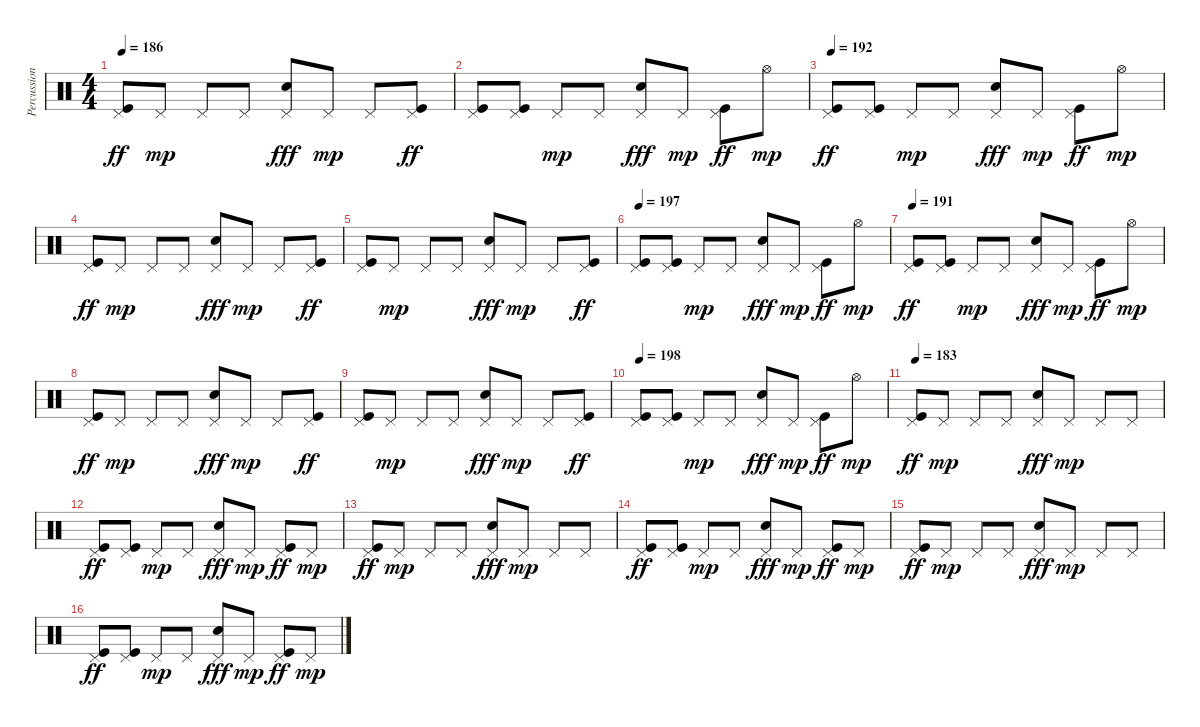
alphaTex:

\track ("Percussion" "Percussion") {instrument percussion}
\staff {score}
\articulation defaults
\ts (4 4)
\tempo 186
\clef neutral
\ks c
("Pedal Hi-Hat (hit)" "Kick (hit)").8{dy ff} "Pedal Hi-Hat (hit)".8{dy mp} "Pedal Hi-Hat (hit)".8 "Pedal Hi-Hat (hit)".8 ("Pedal Hi-Hat (hit)" "Snare (hit) 2").8{dy fff} "Pedal Hi-Hat (hit)".8{dy mp} "Pedal Hi-Hat (hit)".8 ("Pedal Hi-Hat (hit)" "Kick (hit)").8{dy ff} |
("Pedal Hi-Hat (hit)" "Kick (hit)").8 ("Pedal Hi-Hat (hit)" "Kick (hit)").8 "Pedal Hi-Hat (hit)".8{dy mp} "Pedal Hi-Hat (hit)".8 ("Pedal Hi-Hat (hit)" "Snare (hit) 2").8{dy fff} "Pedal Hi-Hat (hit)".8{dy mp} ("Pedal Hi-Hat (hit)" "Kick (hit)").8{dy ff} "Hi-Hat (open)".8{dy mp} |
\tempo 192
("Pedal Hi-Hat (hit)" "Kick (hit)").8{dy ff} ("Pedal Hi-Hat (hit)" "Kick (hit)").8 "Pedal Hi-Hat (hit)".8{dy mp} "Pedal Hi-Hat (hit)".8 ("Pedal Hi-Hat (hit)" "Snare (hit) 2").8{dy fff} "Pedal Hi-Hat (hit)".8{dy mp} ("Pedal Hi-Hat (hit)" "Kick (hit)").8{dy ff} "Hi-Hat (open)".8{dy mp} |
("Pedal Hi-Hat (hit)" "Kick (hit)").8{dy ff} "Pedal Hi-Hat (hit)".8{dy mp} "Pedal Hi-Hat (hit)".8 "Pedal Hi-Hat (hit)".8 ("Pedal Hi-Hat (hit)" "Snare (hit) 2").8{dy fff} "Pedal Hi-Hat (hit)".8{dy mp} "Pedal Hi-Hat (hit)".8 ("Pedal Hi-Hat (hit)" "Kick (hit)").8{dy ff} |
("Pedal Hi-Hat (hit)" "Kick (hit)").8 "Pedal Hi-Hat (hit)".8{dy mp} "Pedal Hi-Hat (hit)".8 "Pedal Hi-Hat (hit)".8 ("Pedal Hi-Hat (hit)" "Snare (hit) 2").8{dy fff} "Pedal Hi-Hat (hit)".8{dy mp} "Pedal Hi-Hat (hit)".8 ("Pedal Hi-Hat (hit)" "Kick (hit)").8{dy ff} |
\tempo 197
("Pedal Hi-Hat (hit)" "Kick (hit)").8 ("Pedal Hi-Hat (hit)" "Kick (hit)").8 "Pedal Hi-Hat (hit)".8{dy mp} "Pedal Hi-Hat (hit)".8 ("Pedal Hi-Hat (hit)" "Snare (hit) 2").8{dy fff} "Pedal Hi-Hat (hit)".8{dy mp} ("Pedal Hi-Hat (hit)" "Kick (hit)").8{dy ff} "Hi-Hat (open)".8{dy mp} |
\tempo 191
("Pedal Hi-Hat (hit)" "Kick (hit)").8{dy ff} ("Pedal Hi-Hat (hit)" "Kick (hit)").8 "Pedal Hi-Hat (hit)".8{dy mp} "Pedal Hi-Hat (hit)".8 ("Pedal Hi-Hat (hit)" "Snare (hit) 2").8{dy fff} "Pedal Hi-Hat (hit)".8{dy mp} ("Pedal Hi-Hat (hit)" "Kick (hit)").8{dy ff} "Hi-Hat (open)".8{dy mp} |
("Pedal Hi-Hat (hit)" "Kick (hit)").8{dy ff} "Pedal Hi-Hat (hit)".8{dy mp} "Pedal Hi-Hat (hit)".8 "Pedal Hi-Hat (hit)".8 ("Pedal Hi-Hat (hit)" "Snare (hit) 2").8{dy fff} "Pedal Hi-Hat (hit)".8{dy mp} "Pedal Hi-Hat (hit)".8 ("Pedal Hi-Hat (hit)" "Kick (hit)").8{dy ff} |
("Pedal Hi-Hat (hit)" "Kick (hit)").8 "Pedal Hi-Hat (hit)".8{dy mp} "Pedal Hi-Hat (hit)".8 "Pedal Hi-Hat (hit)".8 ("Pedal Hi-Hat (hit)" "Snare (hit) 2").8{dy fff} "Pedal Hi-Hat (hit)".8{dy mp} "Pedal Hi-Hat (hit)".8 ("Pedal Hi-Hat (hit)" "Kick (hit)").8{dy ff} |
\tempo 198
("Pedal Hi-Hat (hit)" "Kick (hit)").8 ("Pedal Hi-Hat (hit)" "Kick (hit)").8 "Pedal Hi-Hat (hit)".8{dy mp} "Pedal Hi-Hat (hit)".8 ("Pedal Hi-Hat (hit)" "Snare (hit) 2").8{dy fff} "Pedal Hi-Hat (hit)".8{dy mp} ("Pedal Hi-Hat (hit)" "Kick (hit)").8{dy ff} "Hi-Hat (open)".8{dy mp} |
\tempo 183
("Pedal Hi-Hat (hit)" "Kick (hit)").8{dy ff} "Pedal Hi-Hat (hit)".8{dy mp} "Pedal Hi-Hat (hit)".8 "Pedal Hi-Hat (hit)".8 ("Pedal Hi-Hat (hit)" "Snare (hit) 2").8{dy fff} "Pedal Hi-Hat (hit)".8{dy mp} "Pedal Hi-Hat (hit)".8 "Pedal Hi-Hat (hit)".8 |
("Pedal Hi-Hat (hit)" "Kick (hit)").8{dy ff} ("Pedal Hi-Hat (hit)" "Kick (hit)").8 "Pedal Hi-Hat (hit)".8{dy mp} "Pedal Hi-Hat (hit)".8 ("Pedal Hi-Hat (hit)" "Snare (hit) 2").8{dy fff} "Pedal Hi-Hat (hit)".8{dy mp} ("Pedal Hi-Hat (hit)" "Kick (hit)").8{dy ff} "Pedal Hi-Hat (hit)".8{dy mp} |
("Pedal Hi-Hat (hit)" "Kick (hit)").8{dy ff} "Pedal Hi-Hat (hit)".8{dy mp} "Pedal Hi-Hat (hit)".8 "Pedal Hi-Hat (hit)".8 ("Pedal Hi-Hat (hit)" "Snare (hit) 2").8{dy fff} "Pedal Hi-Hat (hit)".8{dy mp} "Pedal Hi-Hat (hit)".8 "Pedal Hi-Hat (hit)".8 |
("Pedal Hi-Hat (hit)" "Kick (hit)").8{dy ff} ("Pedal Hi-Hat (hit)" "Kick (hit)").8 "Pedal Hi-Hat (hit)".8{dy mp} "Pedal Hi-Hat (hit)".8 ("Pedal Hi-Hat (hit)" "Snare (hit) 2").8{dy fff} "Pedal Hi-Hat (hit)".8{dy mp} ("Pedal Hi-Hat (hit)" "Kick (hit)").8{dy ff} "Pedal Hi-Hat (hit)".8{dy mp} |
("Pedal Hi-Hat (hit)" "Kick (hit)").8{dy ff} "Pedal Hi-Hat (hit)".8{dy mp} "Pedal Hi-Hat (hit)".8 "Pedal Hi-Hat (hit)".8 ("Pedal Hi-Hat (hit)" "Snare (hit) 2").8{dy fff} "Pedal Hi-Hat (hit)".8{dy mp} "Pedal Hi-Hat (hit)".8 "Pedal Hi-Hat (hit)".8 |
("Pedal Hi-Hat (hit)" "Kick (hit)").8{dy ff} ("Pedal Hi-Hat (hit)" "Kick (hit)").8 "Pedal Hi-Hat (hit)".8{dy mp} "Pedal Hi-Hat (hit)".8 ("Pedal Hi-Hat (hit)" "Snare (hit) 2").8{dy fff} "Pedal Hi-Hat (hit)".8{dy mp} ("Pedal Hi-Hat (hit)" "Kick (hit)").8{dy ff} "Pedal Hi-Hat (hit)".8{dy mp}
